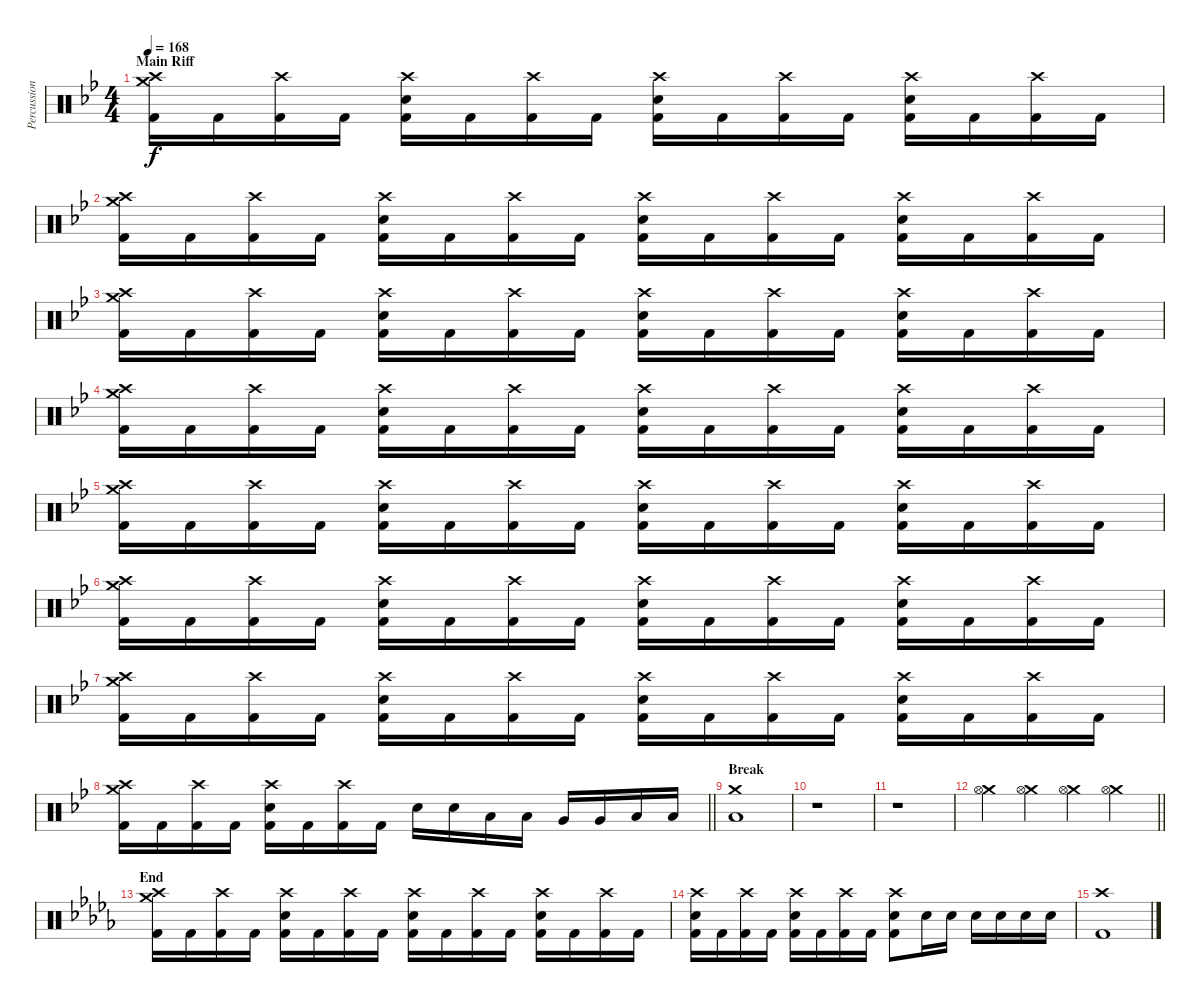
\track ("Percussion" "Percussion") {instrument percussion}
\staff {score}
\articulation defaults
\ts (4 4)
\section ("" "Main Riff")
\tempo 168
\clef neutral
\ks bb
("Crash high (hit)" "Crash medium (hit)" "Kick (hit) 2").16{dy f} "Kick (hit) 2".16 ("Crash high (hit)" "Kick (hit) 2").16 "Kick (hit) 2".16 ("Crash high (hit)" "Snare (hit) 2" "Kick (hit) 2").16 "Kick (hit) 2".16 ("Crash high (hit)" "Kick (hit) 2").16 "Kick (hit) 2".16 ("Crash high (hit)" "Snare (hit) 2" "Kick (hit) 2").16 "Kick (hit) 2".16 ("Crash high (hit)" "Kick (hit) 2").16 "Kick (hit) 2".16 ("Crash high (hit)" "Snare (hit) 2" "Kick (hit) 2").16 "Kick (hit) 2".16 ("Crash high (hit)" "Kick (hit) 2").16 "Kick (hit) 2".16 |
("Crash high (hit)" "Crash medium (hit)" "Kick (hit) 2").16 "Kick (hit) 2".16 ("Crash high (hit)" "Kick (hit) 2").16 "Kick (hit) 2".16 ("Crash high (hit)" "Snare (hit) 2" "Kick (hit) 2").16 "Kick (hit) 2".16 ("Crash high (hit)" "Kick (hit) 2").16 "Kick (hit) 2".16 ("Crash high (hit)" "Snare (hit) 2" "Kick (hit) 2").16 "Kick (hit) 2".16 ("Crash high (hit)" "Kick (hit) 2").16 "Kick (hit) 2".16 ("Crash high (hit)" "Snare (hit) 2" "Kick (hit) 2").16 "Kick (hit) 2".16 ("Crash high (hit)" "Kick (hit) 2").16 "Kick (hit) 2".16 |
("Crash high (hit)" "Crash medium (hit)" "Kick (hit) 2").16 "Kick (hit) 2".16 ("Crash high (hit)" "Kick (hit) 2").16 "Kick (hit) 2".16 ("Crash high (hit)" "Snare (hit) 2" "Kick (hit) 2").16 "Kick (hit) 2".16 ("Crash high (hit)" "Kick (hit) 2").16 "Kick (hit) 2".16 ("Crash high (hit)" "Snare (hit) 2" "Kick (hit) 2").16 "Kick (hit) 2".16 ("Crash high (hit)" "Kick (hit) 2").16 "Kick (hit) 2".16 ("Crash high (hit)" "Snare (hit) 2" "Kick (hit) 2").16 "Kick (hit) 2".16 ("Crash high (hit)" "Kick (hit) 2").16 "Kick (hit) 2".16 |
("Crash high (hit)" "Crash medium (hit)" "Kick (hit) 2").16 "Kick (hit) 2".16 ("Crash high (hit)" "Kick (hit) 2").16 "Kick (hit) 2".16 ("Crash high (hit)" "Snare (hit) 2" "Kick (hit) 2").16 "Kick (hit) 2".16 ("Crash high (hit)" "Kick (hit) 2").16 "Kick (hit) 2".16 ("Crash high (hit)" "Snare (hit) 2" "Kick (hit) 2").16 "Kick (hit) 2".16 ("Crash high (hit)" "Kick (hit) 2").16 "Kick (hit) 2".16 ("Crash high (hit)" "Snare (hit) 2" "Kick (hit) 2").16 "Kick (hit) 2".16 ("Crash high (hit)" "Kick (hit) 2").16 "Kick (hit) 2".16 |
("Crash high (hit)" "Crash medium (hit)" "Kick (hit) 2").16 "Kick (hit) 2".16 ("Crash high (hit)" "Kick (hit) 2").16 "Kick (hit) 2".16 ("Crash high (hit)" "Snare (hit) 2" "Kick (hit) 2").16 "Kick (hit) 2".16 ("Crash high (hit)" "Kick (hit) 2").16 "Kick (hit) 2".16 ("Crash high (hit)" "Snare (hit) 2" "Kick (hit) 2").16 "Kick (hit) 2".16 ("Crash high (hit)" "Kick (hit) 2").16 "Kick (hit) 2".16 ("Crash high (hit)" "Snare (hit) 2" "Kick (hit) 2").16 "Kick (hit) 2".16 ("Crash high (hit)" "Kick (hit) 2").16 "Kick (hit) 2".16 |
("Crash high (hit)" "Crash medium (hit)" "Kick (hit) 2").16 "Kick (hit) 2".16 ("Crash high (hit)" "Kick (hit) 2").16 "Kick (hit) 2".16 ("Crash high (hit)" "Snare (hit) 2" "Kick (hit) 2").16 "Kick (hit) 2".16 ("Crash high (hit)" "Kick (hit) 2").16 "Kick (hit) 2".16 ("Crash high (hit)" "Snare (hit) 2" "Kick (hit) 2").16 "Kick (hit) 2".16 ("Crash high (hit)" "Kick (hit) 2").16 "Kick (hit) 2".16 ("Crash high (hit)" "Snare (hit) 2" "Kick (hit) 2").16 "Kick (hit) 2".16 ("Crash high (hit)" "Kick (hit) 2").16 "Kick (hit) 2".16 |
("Crash high (hit)" "Crash medium (hit)" "Kick (hit) 2").16 "Kick (hit) 2".16 ("Crash high (hit)" "Kick (hit) 2").16 "Kick (hit) 2".16 ("Crash high (hit)" "Snare (hit) 2" "Kick (hit) 2").16 "Kick (hit) 2".16 ("Crash high (hit)" "Kick (hit) 2").16 "Kick (hit) 2".16 ("Crash high (hit)" "Snare (hit) 2" "Kick (hit) 2").16 "Kick (hit) 2".16 ("Crash high (hit)" "Kick (hit) 2").16 "Kick (hit) 2".16 ("Crash high (hit)" "Snare (hit) 2" "Kick (hit) 2").16 "Kick (hit) 2".16 ("Crash high (hit)" "Kick (hit) 2").16 "Kick (hit) 2".16 |
\barLineRight lightlight
("Crash high (hit)" "Crash medium (hit)" "Kick (hit) 2").16 "Kick (hit) 2".16 ("Crash high (hit)" "Kick (hit) 2").16 "Kick (hit) 2".16 ("Crash high (hit)" "Snare (hit) 2" "Kick (hit) 2").16 "Kick (hit) 2".16 ("Crash high (hit)" "Kick (hit) 2").16 "Kick (hit) 2".16 "Snare (hit) 2".16 "Snare (hit) 2".16 "Low Tom (hit)".16 "Low Tom (hit)".16 "Very Low Tom (hit)".16 "Very Low Tom (hit)".16 "Low Floor Tom (hit)".16 "Low Floor Tom (hit)".16 |
\section ("" "Break")
("Crash medium (hit)" "Low Tom (hit)").1 |
r.1 |
r.1 |
\barLineRight lightlight
("Crash medium (hit)" "Hi-Hat (open)").4 ("Crash medium (hit)" "Hi-Hat (open)").4 ("Crash medium (hit)" "Hi-Hat (open)").4 ("Crash medium (hit)" "Hi-Hat (open)").4 |
\section ("" "End")
\ks db
("Crash high (hit)" "Crash medium (hit)" "Kick (hit) 2").16 "Kick (hit) 2".16 ("Crash high (hit)" "Kick (hit) 2").16 "Kick (hit) 2".16 ("Crash high (hit)" "Snare (hit) 2" "Kick (hit) 2").16 "Kick (hit) 2".16 ("Crash high (hit)" "Kick (hit) 2").16 "Kick (hit) 2".16 ("Crash high (hit)" "Snare (hit) 2" "Kick (hit) 2").16 "Kick (hit) 2".16 ("Crash high (hit)" "Kick (hit) 2").16 "Kick (hit) 2".16 ("Crash high (hit)" "Snare (hit) 2" "Kick (hit) 2").16 "Kick (hit) 2".16 ("Crash high (hit)" "Kick (hit) 2").16 "Kick (hit) 2".16 |
("Crash high (hit)" "Snare (hit) 2" "Kick (hit) 2").16 "Kick (hit) 2".16 ("Crash high (hit)" "Kick (hit) 2").16 "Kick (hit) 2".16 ("Crash high (hit)" "Snare (hit) 2" "Kick (hit) 2").16 "Kick (hit) 2".16 ("Crash high (hit)" "Kick (hit) 2").16 "Kick (hit) 2".16 ("Crash high (hit)" "Snare (hit) 2" "Kick (hit) 2").8 "Snare (hit) 2".16 "Snare (hit) 2".16 "Snare (hit) 2".16 "Snare (hit) 2".16 "Snare (hit) 2".16 "Snare (hit) 2".16 |
("Crash high (hit)" "Kick (hit) 2").1
